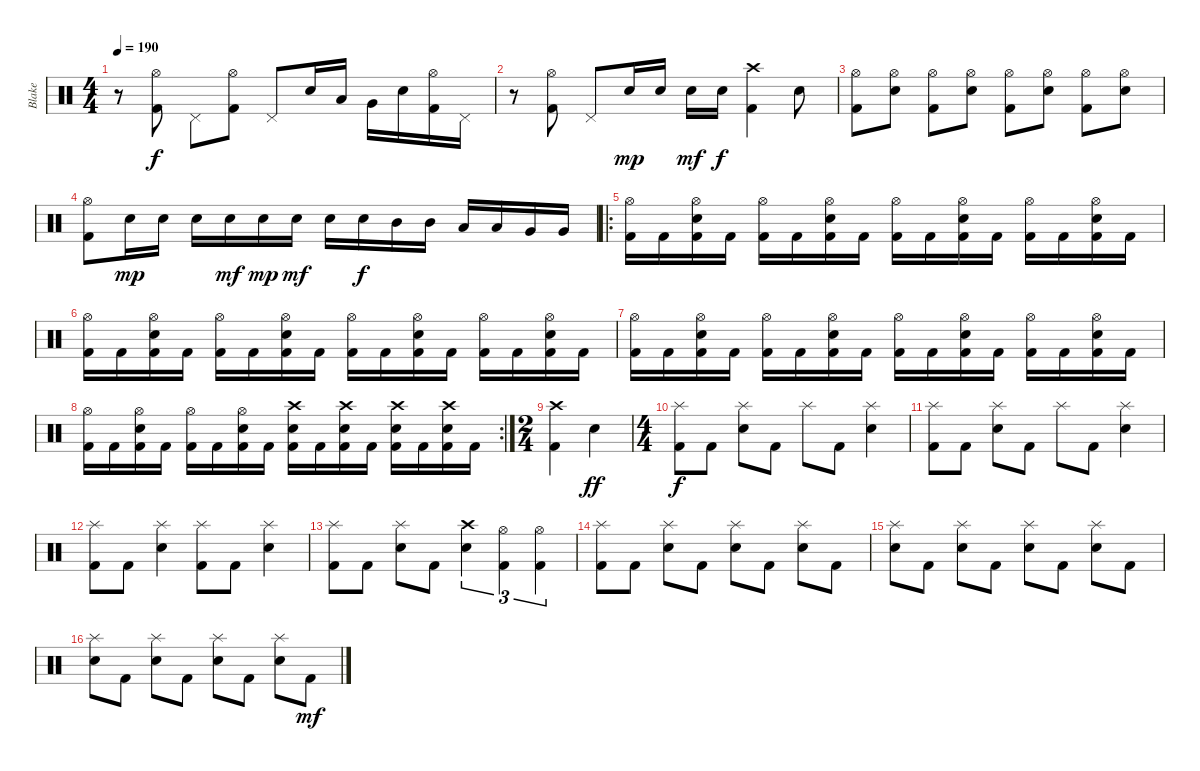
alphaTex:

\track ("Blake" "Blake") {instrument percussion}
\staff {score}
\articulation defaults
\ts (4 4)
\tempo 190
\clef neutral
\ks c
r.8{dy f} ("Hi-Hat (open)" "Kick (hit) 2").8 "Pedal Hi-Hat (hit)".8 ("Hi-Hat (open)" "Kick (hit) 2").8 "Pedal Hi-Hat (hit)".8 "Snare (hit) 2".16 "Low Tom (hit)".16 "Very Low Tom (hit)".16 "Snare (hit) 2".16 ("Hi-Hat (open)" "Kick (hit) 2").16 "Pedal Hi-Hat (hit)".16 |
r.8 ("Hi-Hat (open)" "Kick (hit) 2").8 "Pedal Hi-Hat (hit)".8 "Snare (hit) 2".16{dy mp} "Snare (hit) 2".16 "Snare (hit) 2".16{dy mf} "Snare (hit) 2".16{dy f} ("Crash high (hit)" "Kick (hit) 2").4 "Snare (hit) 2".8 |
("Hi-Hat (open)" "Kick (hit) 2").8 ("Hi-Hat (open)" "Snare (hit) 2").8 ("Hi-Hat (open)" "Kick (hit) 2").8 ("Hi-Hat (open)" "Snare (hit) 2").8 ("Hi-Hat (open)" "Kick (hit) 2").8 ("Hi-Hat (open)" "Snare (hit) 2").8 ("Hi-Hat (open)" "Kick (hit) 2").8 ("Hi-Hat (open)" "Snare (hit) 2").8 |
("Hi-Hat (open)" "Kick (hit) 2").8 "Snare (hit) 2".16{dy mp} "Snare (hit) 2".16 "Snare (hit) 2".16 "Snare (hit) 2".16{dy mf} "Snare (hit) 2".16{dy mp} "Snare (hit) 2".16{dy mf} "Snare (hit) 2".16 "Snare (hit) 2".16{dy f} "Mid Tom (hit)".16 "Mid Tom (hit)".16 "Low Tom (hit)".16 "Low Tom (hit)".16 "Very Low Tom (hit)".16 "Very Low Tom (hit)".16 |
\ro
("Hi-Hat (open)" "Kick (hit) 2").16 "Kick (hit) 2".16 ("Hi-Hat (open)" "Snare (hit) 2" "Kick (hit) 2").16 "Kick (hit) 2".16 ("Hi-Hat (open)" "Kick (hit) 2").16 "Kick (hit) 2".16 ("Hi-Hat (open)" "Snare (hit) 2" "Kick (hit) 2").16 "Kick (hit) 2".16 ("Hi-Hat (open)" "Kick (hit) 2").16 "Kick (hit) 2".16 ("Hi-Hat (open)" "Snare (hit) 2" "Kick (hit) 2").16 "Kick (hit) 2".16 ("Hi-Hat (open)" "Kick (hit) 2").16 "Kick (hit) 2".16 ("Hi-Hat (open)" "Snare (hit) 2" "Kick (hit) 2").16 "Kick (hit) 2".16 |
("Hi-Hat (open)" "Kick (hit) 2").16 "Kick (hit) 2".16 ("Hi-Hat (open)" "Snare (hit) 2" "Kick (hit) 2").16 "Kick (hit) 2".16 ("Hi-Hat (open)" "Kick (hit) 2").16 "Kick (hit) 2".16 ("Hi-Hat (open)" "Snare (hit) 2" "Kick (hit) 2").16 "Kick (hit) 2".16 ("Hi-Hat (open)" "Kick (hit) 2").16 "Kick (hit) 2".16 ("Hi-Hat (open)" "Snare (hit) 2" "Kick (hit) 2").16 "Kick (hit) 2".16 ("Hi-Hat (open)" "Kick (hit) 2").16 "Kick (hit) 2".16 ("Hi-Hat (open)" "Snare (hit) 2" "Kick (hit) 2").16 "Kick (hit) 2".16 |
("Hi-Hat (open)" "Kick (hit) 2").16 "Kick (hit) 2".16 ("Hi-Hat (open)" "Snare (hit) 2" "Kick (hit) 2").16 "Kick (hit) 2".16 ("Hi-Hat (open)" "Kick (hit) 2").16 "Kick (hit) 2".16 ("Hi-Hat (open)" "Snare (hit) 2" "Kick (hit) 2").16 "Kick (hit) 2".16 ("Hi-Hat (open)" "Kick (hit) 2").16 "Kick (hit) 2".16 ("Hi-Hat (open)" "Snare (hit) 2" "Kick (hit) 2").16 "Kick (hit) 2".16 ("Hi-Hat (open)" "Kick (hit) 2").16 "Kick (hit) 2".16 ("Hi-Hat (open)" "Snare (hit) 2" "Kick (hit) 2").16 "Kick (hit) 2".16 |
\rc 2
("Hi-Hat (open)" "Kick (hit) 2").16 "Kick (hit) 2".16 ("Hi-Hat (open)" "Snare (hit) 2" "Kick (hit) 2").16 "Kick (hit) 2".16 ("Hi-Hat (open)" "Kick (hit) 2").16 "Kick (hit) 2".16 ("Hi-Hat (open)" "Snare (hit) 2" "Kick (hit) 2").16 "Kick (hit) 2".16 ("Crash high (hit)" "Snare (hit) 2" "Kick (hit) 2").16 "Kick (hit) 2".16 ("Crash high (hit)" "Snare (hit) 2" "Kick (hit) 2").16 "Kick (hit) 2".16 ("Crash high (hit)" "Snare (hit) 2" "Kick (hit) 2").16 "Kick (hit) 2".16 ("Crash high (hit)" "Snare (hit) 2" "Kick (hit) 2").16 "Kick (hit) 2".16 |
\ts (2 4)
("Crash high (hit)" "Kick (hit) 2").4 "Snare (hit) 2".4{dy ff} |
\ts (4 4)
("Splash (hit)" "Kick (hit) 2").8{dy f} "Kick (hit) 2".8 ("Splash (hit)" "Snare (hit) 2").8 "Kick (hit) 2".8 "Splash (hit)".8 "Kick (hit) 2".8 ("Splash (hit)" "Snare (hit) 2").4 |
("Splash (hit)" "Kick (hit) 2").8 "Kick (hit) 2".8 ("Splash (hit)" "Snare (hit) 2").8 "Kick (hit) 2".8 "Splash (hit)".8 "Kick (hit) 2".8 ("Splash (hit)" "Snare (hit) 2").4 |
("Splash (hit)" "Kick (hit) 2").8 "Kick (hit) 2".8 ("Splash (hit)" "Snare (hit) 2").4 ("Splash (hit)" "Kick (hit) 2").8 "Kick (hit) 2".8 ("Splash (hit)" "Snare (hit) 2").4 |
("Splash (hit)" "Kick (hit) 2").8 "Kick (hit) 2".8 ("Splash (hit)" "Snare (hit) 2").8 "Kick (hit) 2".8 ("Crash high (hit)" "Snare (hit) 2").4{tu (3 2)} ("Hi-Hat (open)" "Kick (hit) 2").4{tu (3 2)} ("Hi-Hat (open)" "Kick (hit) 2").4{tu (3 2)} |
("Splash (hit)" "Kick (hit) 2").8 "Kick (hit) 2".8 ("Splash (hit)" "Snare (hit) 2").8 "Kick (hit) 2".8 ("Splash (hit)" "Snare (hit) 2").8 "Kick (hit) 2".8 ("Splash (hit)" "Snare (hit) 2").8 "Kick (hit) 2".8 |
("Splash (hit)" "Snare (hit) 2").8 "Kick (hit) 2".8 ("Splash (hit)" "Snare (hit) 2").8 "Kick (hit) 2".8 ("Splash (hit)" "Snare (hit) 2").8 "Kick (hit) 2".8 ("Splash (hit)" "Snare (hit) 2").8 "Kick (hit) 2".8 |
("Splash (hit)" "Snare (hit) 2").8 "Kick (hit) 2".8 ("Splash (hit)" "Snare (hit) 2").8 "Kick (hit) 2".8 ("Splash (hit)" "Snare (hit) 2").8 "Kick (hit) 2".8 ("Splash (hit)" "Snare (hit) 2").8 "Kick (hit) 2".8{dy mf}
